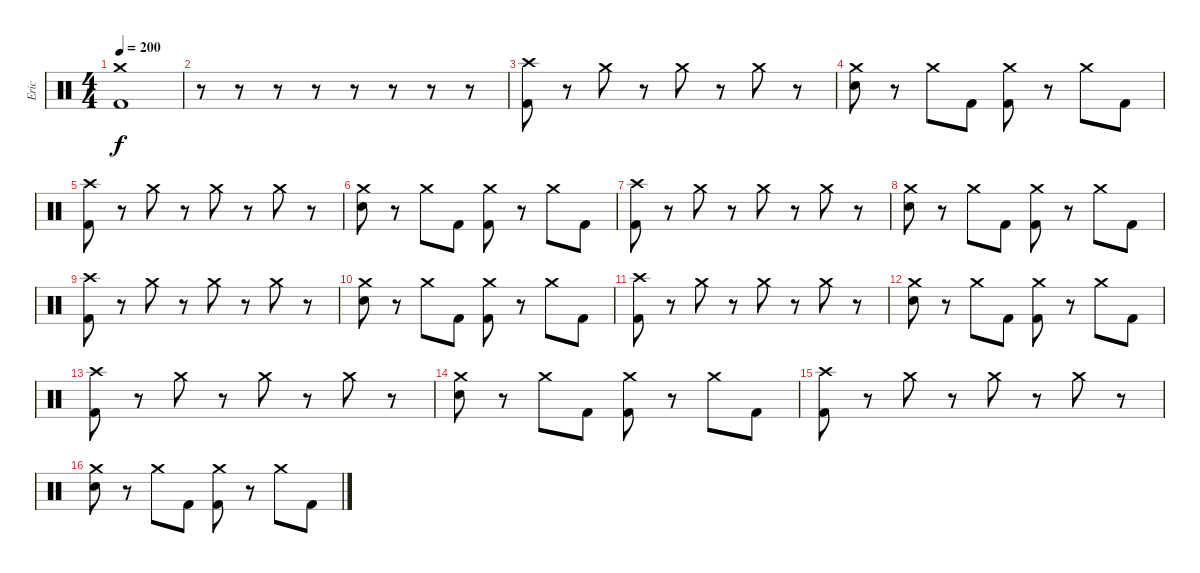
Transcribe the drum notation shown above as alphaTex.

\track ("Eric" "Eric") {instrument percussion}
\staff {score}
\articulation defaults
\ts (4 4)
\tempo 200
\clef neutral
\ks c
("Crash medium (hit)" "Kick (hit) 2").1{dy f} |
r.8 r.8 r.8 r.8 r.8 r.8 r.8 r.8 |
("Crash high (hit)" "Kick (hit) 2").8 r.8 "Crash medium (hit)".8 r.8 "Crash medium (hit)".8 r.8 "Crash medium (hit)".8 r.8 |
("Crash medium (hit)" "Electric Snare (hit)").8 r.8 "Crash medium (hit)".8 "Kick (hit) 2".8 ("Crash medium (hit)" "Kick (hit) 2").8 r.8 "Crash medium (hit)".8 "Kick (hit) 2".8 |
("Crash high (hit)" "Kick (hit) 2").8 r.8 "Crash medium (hit)".8 r.8 "Crash medium (hit)".8 r.8 "Crash medium (hit)".8 r.8 |
("Crash medium (hit)" "Electric Snare (hit)").8 r.8 "Crash medium (hit)".8 "Kick (hit) 2".8 ("Crash medium (hit)" "Kick (hit) 2").8 r.8 "Crash medium (hit)".8 "Kick (hit) 2".8 |
("Crash high (hit)" "Kick (hit) 2").8 r.8 "Crash medium (hit)".8 r.8 "Crash medium (hit)".8 r.8 "Crash medium (hit)".8 r.8 |
("Crash medium (hit)" "Electric Snare (hit)").8 r.8 "Crash medium (hit)".8 "Kick (hit) 2".8 ("Crash medium (hit)" "Kick (hit) 2").8 r.8 "Crash medium (hit)".8 "Kick (hit) 2".8 |
("Crash high (hit)" "Kick (hit) 2").8 r.8 "Crash medium (hit)".8 r.8 "Crash medium (hit)".8 r.8 "Crash medium (hit)".8 r.8 |
("Crash medium (hit)" "Electric Snare (hit)").8 r.8 "Crash medium (hit)".8 "Kick (hit) 2".8 ("Crash medium (hit)" "Kick (hit) 2").8 r.8 "Crash medium (hit)".8 "Kick (hit) 2".8 |
("Crash high (hit)" "Kick (hit) 2").8 r.8 "Crash medium (hit)".8 r.8 "Crash medium (hit)".8 r.8 "Crash medium (hit)".8 r.8 |
("Crash medium (hit)" "Electric Snare (hit)").8 r.8 "Crash medium (hit)".8 "Kick (hit) 2".8 ("Crash medium (hit)" "Kick (hit) 2").8 r.8 "Crash medium (hit)".8 "Kick (hit) 2".8 |
("Crash high (hit)" "Kick (hit) 2").8 r.8 "Crash medium (hit)".8 r.8 "Crash medium (hit)".8 r.8 "Crash medium (hit)".8 r.8 |
("Crash medium (hit)" "Electric Snare (hit)").8 r.8 "Crash medium (hit)".8 "Kick (hit) 2".8 ("Crash medium (hit)" "Kick (hit) 2").8 r.8 "Crash medium (hit)".8 "Kick (hit) 2".8 |
("Crash high (hit)" "Kick (hit) 2").8 r.8 "Crash medium (hit)".8 r.8 "Crash medium (hit)".8 r.8 "Crash medium (hit)".8 r.8 |
("Crash medium (hit)" "Electric Snare (hit)").8 r.8 "Crash medium (hit)".8 "Kick (hit) 2".8 ("Crash medium (hit)" "Kick (hit) 2").8 r.8 "Crash medium (hit)".8 "Kick (hit) 2".8
